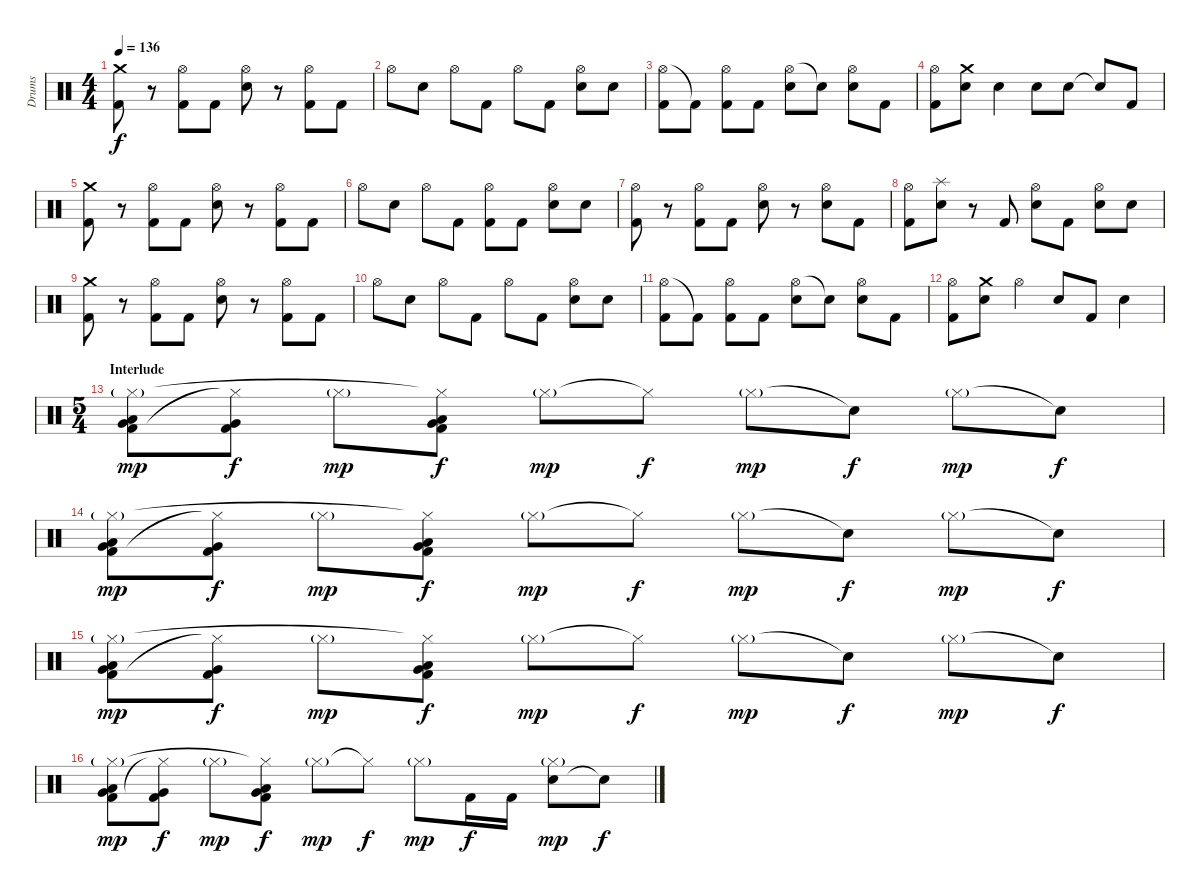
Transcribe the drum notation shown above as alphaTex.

\track ("Drums" "Drums") {instrument percussion}
\staff {score}
\articulation defaults
\ts (4 4)
\tempo 136
\clef neutral
\ks c
("Crash medium (hit)" "Kick (hit) 2").8{dy f} r.8 ("Hi-Hat (open)" "Kick (hit) 2").8 "Kick (hit) 2".8 ("Hi-Hat (open)" "Electric Snare (hit)").8 r.8 ("Hi-Hat (open)" "Kick (hit) 2").8 "Kick (hit) 2".8 |
"Hi-Hat (open)".8 "Electric Snare (hit)".8 "Hi-Hat (open)".8 "Kick (hit) 2".8 "Hi-Hat (open)".8 "Kick (hit) 2".8 ("Hi-Hat (open)" "Electric Snare (hit)").8 "Electric Snare (hit)".8 |
("Hi-Hat (open)" "Kick (hit) 2").8 "Kick (hit) 2"{t}.8 ("Hi-Hat (open)" "Kick (hit) 2").8 "Kick (hit) 2".8 ("Hi-Hat (open)" "Electric Snare (hit)").8 "Snare (hit)"{t}.8 ("Hi-Hat (open)" "Electric Snare (hit)").8 "Kick (hit) 2".8 |
("Hi-Hat (open)" "Kick (hit) 2").8 ("Crash medium (hit)" "Electric Snare (hit)").8 "Electric Snare (hit)".4 "Electric Snare (hit)".8 "Electric Snare (hit)".8 "Electric Snare (hit)"{t}.8 "Kick (hit) 2".8 |
("Crash medium (hit)" "Kick (hit) 2").8 r.8 ("Hi-Hat (open)" "Kick (hit) 2").8 "Kick (hit) 2".8 ("Hi-Hat (open)" "Electric Snare (hit)").8 r.8 ("Hi-Hat (open)" "Kick (hit) 2").8 "Kick (hit) 2".8 |
"Hi-Hat (open)".8 "Electric Snare (hit)".8 "Hi-Hat (open)".8 "Kick (hit) 2".8 ("Hi-Hat (open)" "Kick (hit) 2").8 "Kick (hit) 2".8 ("Hi-Hat (open)" "Electric Snare (hit)").8 "Electric Snare (hit)".8 |
("Hi-Hat (open)" "Kick (hit) 2").8 r.8 ("Hi-Hat (open)" "Kick (hit) 2").8 "Kick (hit) 2".8 ("Hi-Hat (open)" "Electric Snare (hit)").8 r.8 ("Hi-Hat (open)" "Electric Snare (hit)").8 "Kick (hit) 2".8 |
("Hi-Hat (open)" "Kick (hit) 2").8 ("Splash (hit)" "Electric Snare (hit)").8 r.8 "Kick (hit) 2".8 ("Hi-Hat (open)" "Electric Snare (hit)").8 "Kick (hit) 2".8 ("Hi-Hat (open)" "Electric Snare (hit)").8 "Electric Snare (hit)".8 |
("Crash medium (hit)" "Kick (hit) 2").8 r.8 ("Hi-Hat (open)" "Kick (hit) 2").8 "Kick (hit) 2".8 ("Hi-Hat (open)" "Electric Snare (hit)").8 r.8 ("Hi-Hat (open)" "Kick (hit) 2").8 "Kick (hit) 2".8 |
"Hi-Hat (open)".8 "Electric Snare (hit)".8 "Hi-Hat (open)".8 "Kick (hit) 2".8 "Hi-Hat (open)".8 "Kick (hit) 2".8 ("Hi-Hat (open)" "Electric Snare (hit)").8 "Electric Snare (hit)".8 |
("Hi-Hat (open)" "Kick (hit) 2").8 "Kick (hit) 2"{t}.8 ("Hi-Hat (open)" "Kick (hit) 2").8 "Kick (hit) 2".8 ("Hi-Hat (open)" "Electric Snare (hit)").8 "Snare (hit)"{t}.8 ("Hi-Hat (open)" "Electric Snare (hit)").8 "Kick (hit) 2".8 |
("Hi-Hat (open)" "Kick (hit) 2").8 ("Crash medium (hit)" "Electric Snare (hit)").8 "Hi-Hat (open)".4 "Electric Snare (hit)".8 "Kick (hit) 2".8 "Electric Snare (hit)".4 |
\ts (5 4)
\section ("" "Interlude")
("Low Tom (hit)" "Very Low Tom (hit)" "Kick (hit) 2" "Hi-Hat (closed)"{g}).8{dy mp} ("Very Low Tom (hit)" "Kick (hit) 2" "Hi-Hat (closed)"{t}).8{dy f} "Hi-Hat (closed)"{g}.8{dy mp} ("Low Tom (hit)" "Very Low Tom (hit)" "Kick (hit) 2" "Hi-Hat (closed)"{t}).8{dy f} "Hi-Hat (closed)"{g}.8{dy mp} "Hi-Hat (closed)"{t}.8{dy f} "Hi-Hat (closed)"{g}.8{dy mp} "Snare (hit)"{t}.8{dy f} "Hi-Hat (closed)"{g}.8{dy mp} "Snare (hit)"{t}.8{dy f} |
("Low Tom (hit)" "Very Low Tom (hit)" "Kick (hit) 2" "Hi-Hat (closed)"{g}).8{dy mp} ("Very Low Tom (hit)" "Kick (hit) 2" "Hi-Hat (closed)"{t}).8{dy f} "Hi-Hat (closed)"{g}.8{dy mp} ("Low Tom (hit)" "Very Low Tom (hit)" "Kick (hit) 2" "Hi-Hat (closed)"{t}).8{dy f} "Hi-Hat (closed)"{g}.8{dy mp} "Hi-Hat (closed)"{t}.8{dy f} "Hi-Hat (closed)"{g}.8{dy mp} "Snare (hit)"{t}.8{dy f} "Hi-Hat (closed)"{g}.8{dy mp} "Snare (hit)"{t}.8{dy f} |
("Low Tom (hit)" "Very Low Tom (hit)" "Kick (hit) 2" "Hi-Hat (closed)"{g}).8{dy mp} ("Very Low Tom (hit)" "Kick (hit) 2" "Hi-Hat (closed)"{t}).8{dy f} "Hi-Hat (closed)"{g}.8{dy mp} ("Low Tom (hit)" "Very Low Tom (hit)" "Kick (hit) 2" "Hi-Hat (closed)"{t}).8{dy f} "Hi-Hat (closed)"{g}.8{dy mp} "Hi-Hat (closed)"{t}.8{dy f} "Hi-Hat (closed)"{g}.8{dy mp} "Snare (hit)"{t}.8{dy f} "Hi-Hat (closed)"{g}.8{dy mp} "Snare (hit)"{t}.8{dy f} |
("Low Tom (hit)" "Very Low Tom (hit)" "Kick (hit) 2" "Hi-Hat (closed)"{g}).8{dy mp} ("Very Low Tom (hit)" "Kick (hit) 2" "Hi-Hat (closed)"{t}).8{dy f} "Hi-Hat (closed)"{g}.8{dy mp} ("Low Tom (hit)" "Very Low Tom (hit)" "Kick (hit) 2" "Hi-Hat (closed)"{t}).8{dy f} "Hi-Hat (closed)"{g}.8{dy mp} "Hi-Hat (closed)"{t}.8{dy f} "Hi-Hat (closed)"{g}.8{dy mp} "Kick (hit) 2".16{dy f} "Kick (hit) 2".16 ("Electric Snare (hit)" "Hi-Hat (closed)"{g}).8{dy mp} "Snare (hit)"{t}.8{dy f}
